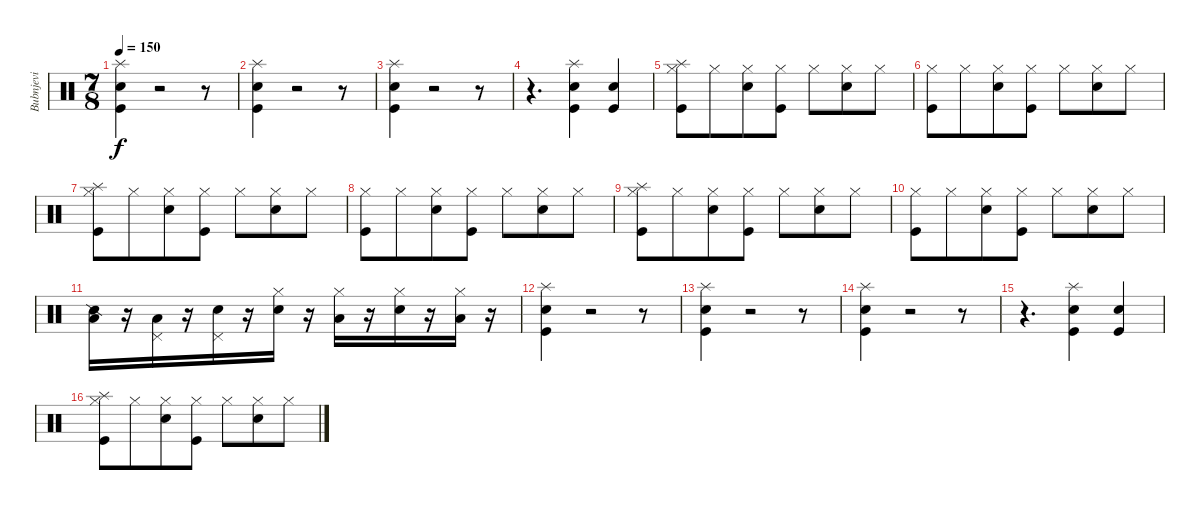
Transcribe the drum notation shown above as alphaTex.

\track ("Bubnjevi" "Bubnjevi") {instrument percussion}
\staff {score}
\articulation defaults
\ts (7 8)
\tempo 150
\clef neutral
\ks c
("Splash (hit)" "Snare (hit) 2" "Kick (hit)").4{dy f} r.2 r.8 |
("Splash (hit)" "Snare (hit) 2" "Kick (hit)").4 r.2 r.8 |
("Splash (hit)" "Snare (hit) 2" "Kick (hit)").4 r.2 r.8 |
r.4{d} ("Splash (hit)" "Snare (hit) 2" "Kick (hit)").4 ("Snare (hit) 2" "Kick (hit)").4 |
("Splash (hit)" "Kick (hit)" "Hi-Hat (closed)").8 "Hi-Hat (closed)".8 ("Snare (hit) 2" "Hi-Hat (closed)").8 ("Kick (hit)" "Hi-Hat (closed)").8 "Hi-Hat (closed)".8 ("Snare (hit) 2" "Hi-Hat (closed)").8 "Hi-Hat (closed)".8 |
("Kick (hit)" "Hi-Hat (closed)").8 "Hi-Hat (closed)".8 ("Snare (hit) 2" "Hi-Hat (closed)").8 ("Kick (hit)" "Hi-Hat (closed)").8 "Hi-Hat (closed)".8 ("Snare (hit) 2" "Hi-Hat (closed)").8 "Hi-Hat (closed)".8 |
("Splash (hit)" "Kick (hit)" "Hi-Hat (closed)").8 "Hi-Hat (closed)".8 ("Snare (hit) 2" "Hi-Hat (closed)").8 ("Kick (hit)" "Hi-Hat (closed)").8 "Hi-Hat (closed)".8 ("Snare (hit) 2" "Hi-Hat (closed)").8 "Hi-Hat (closed)".8 |
("Kick (hit)" "Hi-Hat (closed)").8 "Hi-Hat (closed)".8 ("Snare (hit) 2" "Hi-Hat (closed)").8 ("Kick (hit)" "Hi-Hat (closed)").8 "Hi-Hat (closed)".8 ("Snare (hit) 2" "Hi-Hat (closed)").8 "Hi-Hat (closed)".8 |
("Splash (hit)" "Kick (hit)" "Hi-Hat (closed)").8 "Hi-Hat (closed)".8 ("Snare (hit) 2" "Hi-Hat (closed)").8 ("Kick (hit)" "Hi-Hat (closed)").8 "Hi-Hat (closed)".8 ("Snare (hit) 2" "Hi-Hat (closed)").8 "Hi-Hat (closed)".8 |
("Kick (hit)" "Hi-Hat (closed)").8 "Hi-Hat (closed)".8 ("Snare (hit) 2" "Hi-Hat (closed)").8 ("Kick (hit)" "Hi-Hat (closed)").8 "Hi-Hat (closed)".8 ("Snare (hit) 2" "Hi-Hat (closed)").8 "Hi-Hat (closed)".8 |
("Low Tom (hit)" "Snare (side stick) 2").16 r.16 ("Pedal Hi-Hat (hit)" "Low Tom (hit)").16 r.16 ("Pedal Hi-Hat (hit)" "Snare (hit) 2").16 r.16 ("Hi-Hat (closed)" "Snare (hit) 2").16 r.16 ("Hi-Hat (closed)" "Low Tom (hit)").16 r.16 ("Hi-Hat (closed)" "Snare (hit) 2").16 r.16 ("Hi-Hat (closed)" "Low Tom (hit)").16 r.16 |
("Splash (hit)" "Snare (hit) 2" "Kick (hit)").4 r.2 r.8 |
("Splash (hit)" "Snare (hit) 2" "Kick (hit)").4 r.2 r.8 |
("Splash (hit)" "Snare (hit) 2" "Kick (hit)").4 r.2 r.8 |
r.4{d} ("Splash (hit)" "Snare (hit) 2" "Kick (hit)").4 ("Snare (hit) 2" "Kick (hit)").4 |
("Splash (hit)" "Kick (hit)" "Hi-Hat (closed)").8 "Hi-Hat (closed)".8 ("Snare (hit) 2" "Hi-Hat (closed)").8 ("Kick (hit)" "Hi-Hat (closed)").8 "Hi-Hat (closed)".8 ("Snare (hit) 2" "Hi-Hat (closed)").8 "Hi-Hat (closed)".8
